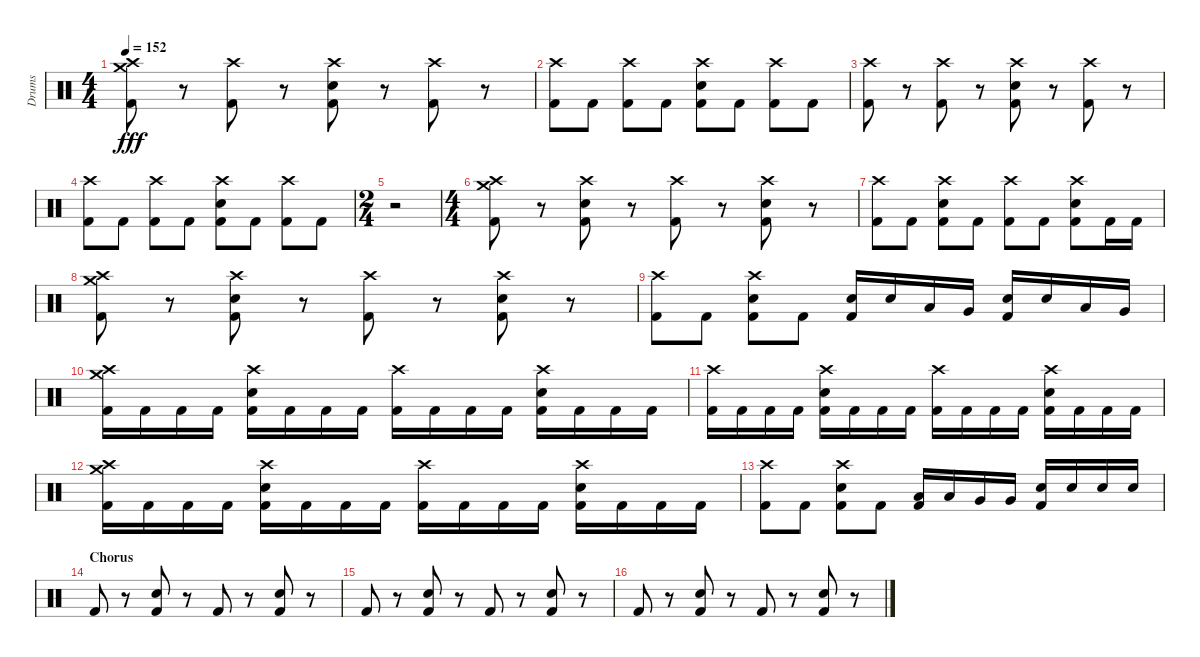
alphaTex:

\track ("Drums" "Drums") {instrument percussion}
\staff {score}
\articulation defaults
\ts (4 4)
\tempo 152
\clef neutral
\ks c
("Crash medium (hit)" "Crash high (hit)" "Kick (hit) 2").8{dy fff} r.8 ("Crash high (hit)" "Kick (hit) 2").8 r.8 ("Crash high (hit)" "Snare (hit) 2" "Kick (hit) 2").8 r.8 ("Crash high (hit)" "Kick (hit) 2").8 r.8 |
("Crash high (hit)" "Kick (hit) 2").8 "Kick (hit) 2".8 ("Crash high (hit)" "Kick (hit) 2").8 "Kick (hit) 2".8 ("Crash high (hit)" "Snare (hit) 2" "Kick (hit) 2").8 "Kick (hit) 2".8 ("Crash high (hit)" "Kick (hit) 2").8 "Kick (hit) 2".8 |
("Crash high (hit)" "Kick (hit) 2").8 r.8 ("Crash high (hit)" "Kick (hit) 2").8 r.8 ("Crash high (hit)" "Snare (hit) 2" "Kick (hit) 2").8 r.8 ("Crash high (hit)" "Kick (hit) 2").8 r.8 |
("Crash high (hit)" "Kick (hit) 2").8 "Kick (hit) 2".8 ("Crash high (hit)" "Kick (hit) 2").8 "Kick (hit) 2".8 ("Crash high (hit)" "Snare (hit) 2" "Kick (hit) 2").8 "Kick (hit) 2".8 ("Crash high (hit)" "Kick (hit) 2").8 "Kick (hit) 2".8 |
\ts (2 4)
r.2 |
\ts (4 4)
("Crash medium (hit)" "Crash high (hit)" "Kick (hit) 2").8 r.8 ("Crash high (hit)" "Snare (hit) 2" "Kick (hit) 2").8 r.8 ("Crash high (hit)" "Kick (hit) 2").8 r.8 ("Crash high (hit)" "Snare (hit) 2" "Kick (hit) 2").8 r.8 |
("Crash high (hit)" "Kick (hit) 2").8 "Kick (hit) 2".8 ("Crash high (hit)" "Snare (hit) 2" "Kick (hit) 2").8 "Kick (hit) 2".8 ("Crash high (hit)" "Kick (hit) 2").8 "Kick (hit) 2".8 ("Crash high (hit)" "Snare (hit) 2" "Kick (hit) 2").8 "Kick (hit) 2".16 "Kick (hit) 2".16 |
("Crash medium (hit)" "Crash high (hit)" "Kick (hit) 2").8 r.8 ("Crash high (hit)" "Snare (hit) 2" "Kick (hit) 2").8 r.8 ("Crash high (hit)" "Kick (hit) 2").8 r.8 ("Crash high (hit)" "Snare (hit) 2" "Kick (hit) 2").8 r.8 |
("Crash high (hit)" "Kick (hit) 2").8 "Kick (hit) 2".8 ("Crash high (hit)" "Snare (hit) 2" "Kick (hit) 2").8 "Kick (hit) 2".8 ("Snare (hit) 2" "Kick (hit) 2").16 "Snare (hit) 2".16 "Low Tom (hit)".16 "Very Low Tom (hit)".16 ("Snare (hit) 2" "Kick (hit) 2").16 "Snare (hit) 2".16 "Low Tom (hit)".16 "Very Low Tom (hit)".16 |
("Crash medium (hit)" "Crash high (hit)" "Kick (hit) 2").16 "Kick (hit) 2".16 "Kick (hit) 2".16 "Kick (hit) 2".16 ("Crash high (hit)" "Snare (hit) 2" "Kick (hit) 2").16 "Kick (hit) 2".16 "Kick (hit) 2".16 "Kick (hit) 2".16 ("Crash high (hit)" "Kick (hit) 2").16 "Kick (hit) 2".16 "Kick (hit) 2".16 "Kick (hit) 2".16 ("Crash high (hit)" "Snare (hit) 2" "Kick (hit) 2").16 "Kick (hit) 2".16 "Kick (hit) 2".16 "Kick (hit) 2".16 |
("Crash high (hit)" "Kick (hit) 2").16 "Kick (hit) 2".16 "Kick (hit) 2".16 "Kick (hit) 2".16 ("Crash high (hit)" "Snare (hit) 2" "Kick (hit) 2").16 "Kick (hit) 2".16 "Kick (hit) 2".16 "Kick (hit) 2".16 ("Crash high (hit)" "Kick (hit) 2").16 "Kick (hit) 2".16 "Kick (hit) 2".16 "Kick (hit) 2".16 ("Crash high (hit)" "Snare (hit) 2" "Kick (hit) 2").16 "Kick (hit) 2".16 "Kick (hit) 2".16 "Kick (hit) 2".16 |
("Crash medium (hit)" "Crash high (hit)" "Kick (hit) 2").16 "Kick (hit) 2".16 "Kick (hit) 2".16 "Kick (hit) 2".16 ("Crash high (hit)" "Snare (hit) 2" "Kick (hit) 2").16 "Kick (hit) 2".16 "Kick (hit) 2".16 "Kick (hit) 2".16 ("Crash high (hit)" "Kick (hit) 2").16 "Kick (hit) 2".16 "Kick (hit) 2".16 "Kick (hit) 2".16 ("Crash high (hit)" "Snare (hit) 2" "Kick (hit) 2").16 "Kick (hit) 2".16 "Kick (hit) 2".16 "Kick (hit) 2".16 |
("Crash high (hit)" "Kick (hit) 2").8 "Kick (hit) 2".8 ("Crash high (hit)" "Snare (hit) 2" "Kick (hit) 2").8 "Kick (hit) 2".8 ("Low Tom (hit)" "Kick (hit) 2").16 "Low Tom (hit)".16 "Very Low Tom (hit)".16 "Very Low Tom (hit)".16 ("Snare (hit) 2" "Kick (hit) 2").16 "Snare (hit) 2".16 "Snare (hit) 2".16 "Snare (hit) 2".16 |
\section ("" "Chorus")
"Kick (hit) 2".8 r.8 ("Snare (hit) 2" "Kick (hit) 2").8 r.8 "Kick (hit) 2".8 r.8 ("Snare (hit) 2" "Kick (hit) 2").8 r.8 |
"Kick (hit) 2".8 r.8 ("Snare (hit) 2" "Kick (hit) 2").8 r.8 "Kick (hit) 2".8 r.8 ("Snare (hit) 2" "Kick (hit) 2").8 r.8 |
"Kick (hit) 2".8 r.8 ("Snare (hit) 2" "Kick (hit) 2").8 r.8 "Kick (hit) 2".8 r.8 ("Snare (hit) 2" "Kick (hit) 2").8 r.8
